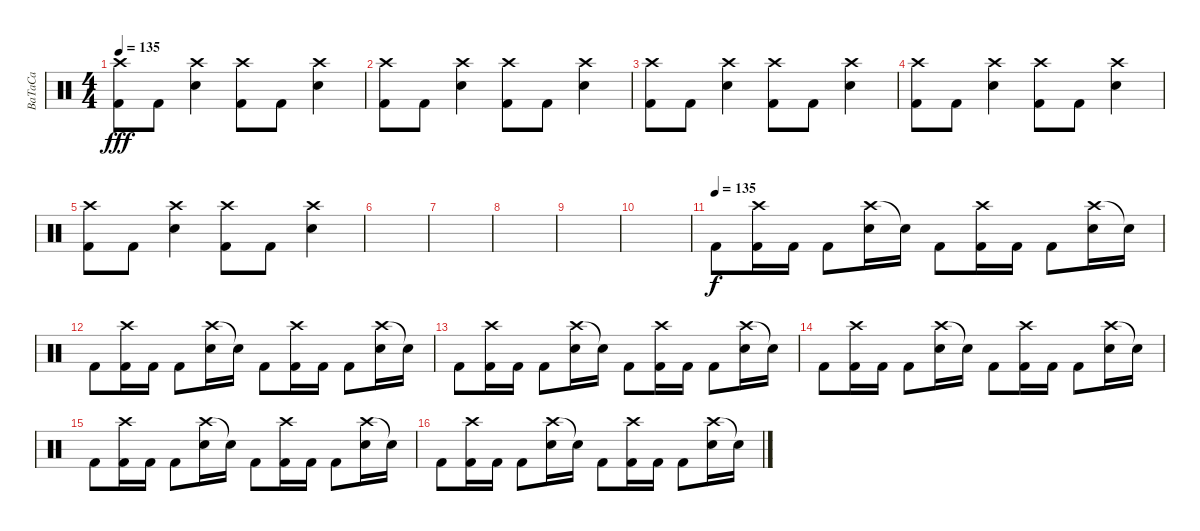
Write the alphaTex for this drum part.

\track ("BaTaCa" "BaTaCa") {instrument percussion}
\staff {score}
\articulation defaults
\ts (4 4)
\tempo 135
\clef neutral
\ks c
("Crash high (hit)" "Kick (hit) 2").8{dy fff} "Kick (hit) 2".8 ("Crash high (hit)" "Electric Snare (hit)").4 ("Crash high (hit)" "Kick (hit) 2").8 "Kick (hit) 2".8 ("Crash high (hit)" "Electric Snare (hit)").4 |
("Crash high (hit)" "Kick (hit) 2").8 "Kick (hit) 2".8 ("Crash high (hit)" "Electric Snare (hit)").4 ("Crash high (hit)" "Kick (hit) 2").8 "Kick (hit) 2".8 ("Crash high (hit)" "Electric Snare (hit)").4 |
("Crash high (hit)" "Kick (hit) 2").8 "Kick (hit) 2".8 ("Crash high (hit)" "Electric Snare (hit)").4 ("Crash high (hit)" "Kick (hit) 2").8 "Kick (hit) 2".8 ("Crash high (hit)" "Electric Snare (hit)").4 |
("Crash high (hit)" "Kick (hit) 2").8 "Kick (hit) 2".8 ("Crash high (hit)" "Electric Snare (hit)").4 ("Crash high (hit)" "Kick (hit) 2").8 "Kick (hit) 2".8 ("Crash high (hit)" "Electric Snare (hit)").4 |
("Crash high (hit)" "Kick (hit) 2").8 "Kick (hit) 2".8 ("Crash high (hit)" "Electric Snare (hit)").4 ("Crash high (hit)" "Kick (hit) 2").8 "Kick (hit) 2".8 ("Crash high (hit)" "Electric Snare (hit)").4 |
|
|
|
|
|
\tempo (135)
"Kick (hit) 2".8{dy f} ("Crash high (hit)" "Kick (hit) 2").16 "Kick (hit) 2".16 "Kick (hit) 2".8 ("Crash high (hit)" "Electric Snare (hit)").16 "Electric Snare (hit)"{t}.16 "Kick (hit) 2".8 ("Crash high (hit)" "Kick (hit) 2").16 "Kick (hit) 2".16 "Kick (hit) 2".8 ("Crash high (hit)" "Electric Snare (hit)").16 "Electric Snare (hit)"{t}.16 |
"Kick (hit) 2".8 ("Crash high (hit)" "Kick (hit) 2").16 "Kick (hit) 2".16 "Kick (hit) 2".8 ("Crash high (hit)" "Electric Snare (hit)").16 "Electric Snare (hit)"{t}.16 "Kick (hit) 2".8 ("Crash high (hit)" "Kick (hit) 2").16 "Kick (hit) 2".16 "Kick (hit) 2".8 ("Crash high (hit)" "Electric Snare (hit)").16 "Electric Snare (hit)"{t}.16 |
"Kick (hit) 2".8 ("Crash high (hit)" "Kick (hit) 2").16 "Kick (hit) 2".16 "Kick (hit) 2".8 ("Crash high (hit)" "Electric Snare (hit)").16 "Electric Snare (hit)"{t}.16 "Kick (hit) 2".8 ("Crash high (hit)" "Kick (hit) 2").16 "Kick (hit) 2".16 "Kick (hit) 2".8 ("Crash high (hit)" "Electric Snare (hit)").16 "Electric Snare (hit)"{t}.16 |
"Kick (hit) 2".8 ("Crash high (hit)" "Kick (hit) 2").16 "Kick (hit) 2".16 "Kick (hit) 2".8 ("Crash high (hit)" "Electric Snare (hit)").16 "Electric Snare (hit)"{t}.16 "Kick (hit) 2".8 ("Crash high (hit)" "Kick (hit) 2").16 "Kick (hit) 2".16 "Kick (hit) 2".8 ("Crash high (hit)" "Electric Snare (hit)").16 "Electric Snare (hit)"{t}.16 |
"Kick (hit) 2".8 ("Crash high (hit)" "Kick (hit) 2").16 "Kick (hit) 2".16 "Kick (hit) 2".8 ("Crash high (hit)" "Electric Snare (hit)").16 "Electric Snare (hit)"{t}.16 "Kick (hit) 2".8 ("Crash high (hit)" "Kick (hit) 2").16 "Kick (hit) 2".16 "Kick (hit) 2".8 ("Crash high (hit)" "Electric Snare (hit)").16 "Electric Snare (hit)"{t}.16 |
"Kick (hit) 2".8 ("Crash high (hit)" "Kick (hit) 2").16 "Kick (hit) 2".16 "Kick (hit) 2".8 ("Crash high (hit)" "Electric Snare (hit)").16 "Electric Snare (hit)"{t}.16 "Kick (hit) 2".8 ("Crash high (hit)" "Kick (hit) 2").16 "Kick (hit) 2".16 "Kick (hit) 2".8 ("Crash high (hit)" "Electric Snare (hit)").16 "Electric Snare (hit)"{t}.16
